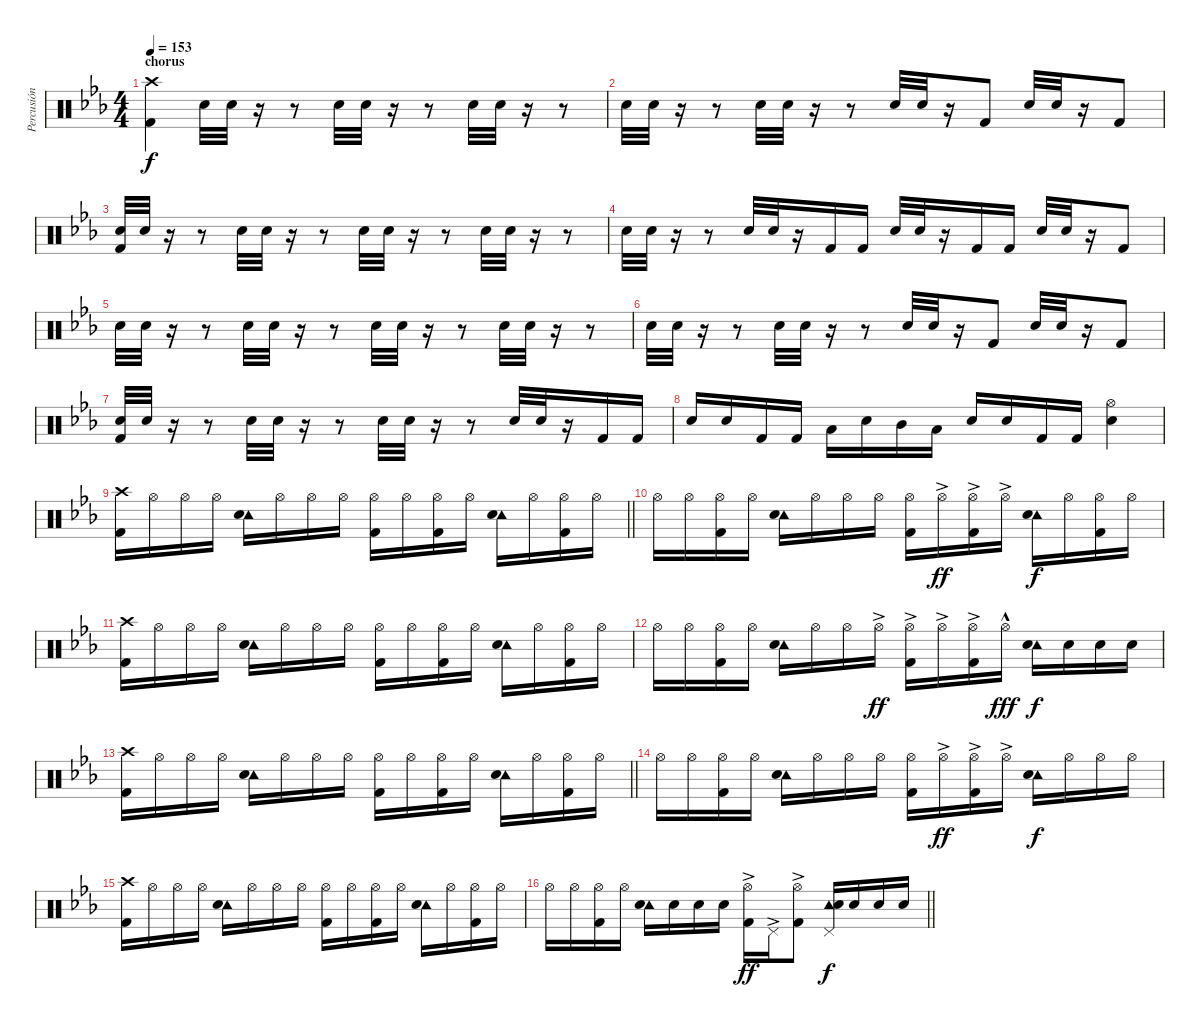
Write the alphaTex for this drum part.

\track ("Percusión" "Percusión") {instrument percussion}
\staff {score}
\articulation defaults
\ts (4 4)
\section ("" "chorus")
\tempo 153
\clef neutral
\ks eb
("Crash high (hit)" "Kick (hit) 2").4{dy f} "Snare (hit) 2".32 "Snare (hit) 2".32 r.16 r.8 "Snare (hit) 2".32 "Snare (hit) 2".32 r.16 r.8 "Snare (hit) 2".32 "Snare (hit) 2".32 r.16 r.8 |
"Snare (hit) 2".32 "Snare (hit) 2".32 r.16 r.8 "Snare (hit) 2".32 "Snare (hit) 2".32 r.16 r.8 "Snare (hit) 2".32 "Snare (hit) 2".32 r.16 "Kick (hit) 2".8 "Snare (hit) 2".32 "Snare (hit) 2".32 r.16 "Kick (hit) 2".8 |
("Snare (hit) 2" "Kick (hit) 2").32 "Snare (hit) 2".32 r.16 r.8 "Snare (hit) 2".32 "Snare (hit) 2".32 r.16 r.8 "Snare (hit) 2".32 "Snare (hit) 2".32 r.16 r.8 "Snare (hit) 2".32 "Snare (hit) 2".32 r.16 r.8 |
"Snare (hit) 2".32 "Snare (hit) 2".32 r.16 r.8 "Snare (hit) 2".32 "Snare (hit) 2".32 r.16 "Kick (hit) 2".16 "Kick (hit) 2".16 "Snare (hit) 2".32 "Snare (hit) 2".32 r.16 "Kick (hit) 2".16 "Kick (hit) 2".16 "Snare (hit) 2".32 "Snare (hit) 2".32 r.16 "Kick (hit) 2".8 |
"Snare (hit) 2".32 "Snare (hit) 2".32 r.16 r.8 "Snare (hit) 2".32 "Snare (hit) 2".32 r.16 r.8 "Snare (hit) 2".32 "Snare (hit) 2".32 r.16 r.8 "Snare (hit) 2".32 "Snare (hit) 2".32 r.16 r.8 |
"Snare (hit) 2".32 "Snare (hit) 2".32 r.16 r.8 "Snare (hit) 2".32 "Snare (hit) 2".32 r.16 r.8 "Snare (hit) 2".32 "Snare (hit) 2".32 r.16 "Kick (hit) 2".8 "Snare (hit) 2".32 "Snare (hit) 2".32 r.16 "Kick (hit) 2".8 |
("Snare (hit) 2" "Kick (hit) 2").32 "Snare (hit) 2".32 r.16 r.8 "Snare (hit) 2".32 "Snare (hit) 2".32 r.16 r.8 "Snare (hit) 2".32 "Snare (hit) 2".32 r.16 r.8 "Snare (hit) 2".32 "Snare (hit) 2".32 r.16 "Kick (hit) 2".16 "Kick (hit) 2".16 |
"Snare (hit) 2".16 "Snare (hit) 2".16 "Kick (hit) 2".16 "Kick (hit) 2".16 "Low Tom (hit)".16 "Snare (hit) 2".16 "Mid Tom (hit)".16 "Low Tom (hit)".16 "Snare (hit) 2".16 "Snare (hit) 2".16 "Kick (hit) 2".16 "Kick (hit) 2".16 ("Hi-Hat (open)" "Snare (hit) 2").4 |
\barLineRight lightlight
("Crash high (hit)" "Kick (hit) 2").16 "Hi-Hat (open)".16 "Hi-Hat (open)".16 "Hi-Hat (open)".16 ("Tambourine (hit)" "Snare (hit) 2").16 "Hi-Hat (open)".16 "Hi-Hat (open)".16 "Hi-Hat (open)".16 ("Hi-Hat (open)" "Kick (hit) 2").16 "Hi-Hat (open)".16 ("Hi-Hat (open)" "Kick (hit) 2").16 "Hi-Hat (open)".16 ("Tambourine (hit)" "Snare (hit) 2").16 "Hi-Hat (open)".16 ("Hi-Hat (open)" "Kick (hit) 2").16 "Hi-Hat (open)".16 |
"Hi-Hat (open)".16 "Hi-Hat (open)".16 ("Hi-Hat (open)" "Kick (hit) 2").16 "Hi-Hat (open)".16 ("Tambourine (hit)" "Snare (hit) 2").16 "Hi-Hat (open)".16 "Hi-Hat (open)".16 "Hi-Hat (open)".16 ("Hi-Hat (open)" "Kick (hit) 2").16 "Hi-Hat (open)"{ac}.16{dy ff} ("Hi-Hat (open)"{ac} "Kick (hit) 2").16 "Hi-Hat (open)"{ac}.16 ("Tambourine (hit)" "Snare (hit) 2").16{dy f} "Hi-Hat (open)".16 ("Hi-Hat (open)" "Kick (hit) 2").16 "Hi-Hat (open)".16 |
("Crash high (hit)" "Kick (hit) 2").16 "Hi-Hat (open)".16 "Hi-Hat (open)".16 "Hi-Hat (open)".16 ("Tambourine (hit)" "Snare (hit) 2").16 "Hi-Hat (open)".16 "Hi-Hat (open)".16 "Hi-Hat (open)".16 ("Hi-Hat (open)" "Kick (hit) 2").16 "Hi-Hat (open)".16 ("Hi-Hat (open)" "Kick (hit) 2").16 "Hi-Hat (open)".16 ("Tambourine (hit)" "Snare (hit) 2").16 "Hi-Hat (open)".16 ("Hi-Hat (open)" "Kick (hit) 2").16 "Hi-Hat (open)".16 |
"Hi-Hat (open)".16 "Hi-Hat (open)".16 ("Hi-Hat (open)" "Kick (hit) 2").16 "Hi-Hat (open)".16 ("Tambourine (hit)" "Snare (hit) 2").16 "Hi-Hat (open)".16 "Hi-Hat (open)".16 "Hi-Hat (open)"{ac}.16{dy ff} ("Hi-Hat (open)"{ac} "Kick (hit) 2").16 "Hi-Hat (open)"{ac}.16 ("Hi-Hat (open)"{ac} "Kick (hit) 2").16 "Hi-Hat (open)"{hac}.16{dy fff} ("Tambourine (hit)" "Snare (hit) 2").16{dy f} "Snare (hit) 2".16 "Snare (hit) 2".16 "Snare (hit) 2".16 |
\barLineRight lightlight
("Crash high (hit)" "Kick (hit) 2").16 "Hi-Hat (open)".16 "Hi-Hat (open)".16 "Hi-Hat (open)".16 ("Tambourine (hit)" "Snare (hit) 2").16 "Hi-Hat (open)".16 "Hi-Hat (open)".16 "Hi-Hat (open)".16 ("Hi-Hat (open)" "Kick (hit) 2").16 "Hi-Hat (open)".16 ("Hi-Hat (open)" "Kick (hit) 2").16 "Hi-Hat (open)".16 ("Tambourine (hit)" "Snare (hit) 2").16 "Hi-Hat (open)".16 ("Hi-Hat (open)" "Kick (hit) 2").16 "Hi-Hat (open)".16 |
"Hi-Hat (open)".16 "Hi-Hat (open)".16 ("Hi-Hat (open)" "Kick (hit) 2").16 "Hi-Hat (open)".16 ("Tambourine (hit)" "Snare (hit) 2").16 "Hi-Hat (open)".16 "Hi-Hat (open)".16 "Hi-Hat (open)".16 ("Hi-Hat (open)" "Kick (hit) 2").16 "Hi-Hat (open)"{ac}.16{dy ff} ("Hi-Hat (open)"{ac} "Kick (hit) 2").16 "Hi-Hat (open)"{ac}.16 ("Tambourine (hit)" "Snare (hit) 2").16{dy f} "Hi-Hat (open)".16 "Hi-Hat (open)".16 "Hi-Hat (open)".16 |
("Crash high (hit)" "Kick (hit) 2").16 "Hi-Hat (open)".16 "Hi-Hat (open)".16 "Hi-Hat (open)".16 ("Tambourine (hit)" "Snare (hit) 2").16 "Hi-Hat (open)".16 "Hi-Hat (open)".16 "Hi-Hat (open)".16 ("Hi-Hat (open)" "Kick (hit) 2").16 "Hi-Hat (open)".16 ("Hi-Hat (open)" "Kick (hit) 2").16 "Hi-Hat (open)".16 ("Tambourine (hit)" "Snare (hit) 2").16 "Hi-Hat (open)".16 ("Hi-Hat (open)" "Kick (hit) 2").16 "Hi-Hat (open)".16 |
\barLineRight lightlight "Hi-Hat (open)".16 "Hi-Hat (open)".16
("Hi-Hat (open)" "Kick (hit) 2").16 "Hi-Hat (open)".16 ("Tambourine (hit)" "Snare (hit) 2").16 "Snare (hit) 2".16 "Snare (hit) 2".16 "Snare (hit) 2".16 ("Hi-Hat (open)"{ac} "Kick (hit) 2").16{dy ff} "Pedal Hi-Hat (hit)"{ac}.16 ("Hi-Hat (open)"{ac} "Kick (hit) 2").8 ("Tambourine (hit)" "Pedal Hi-Hat (hit)" "Snare (hit) 2").16{dy f} "Snare (hit) 2".16 "Snare (hit) 2".16 "Snare (hit) 2".16
